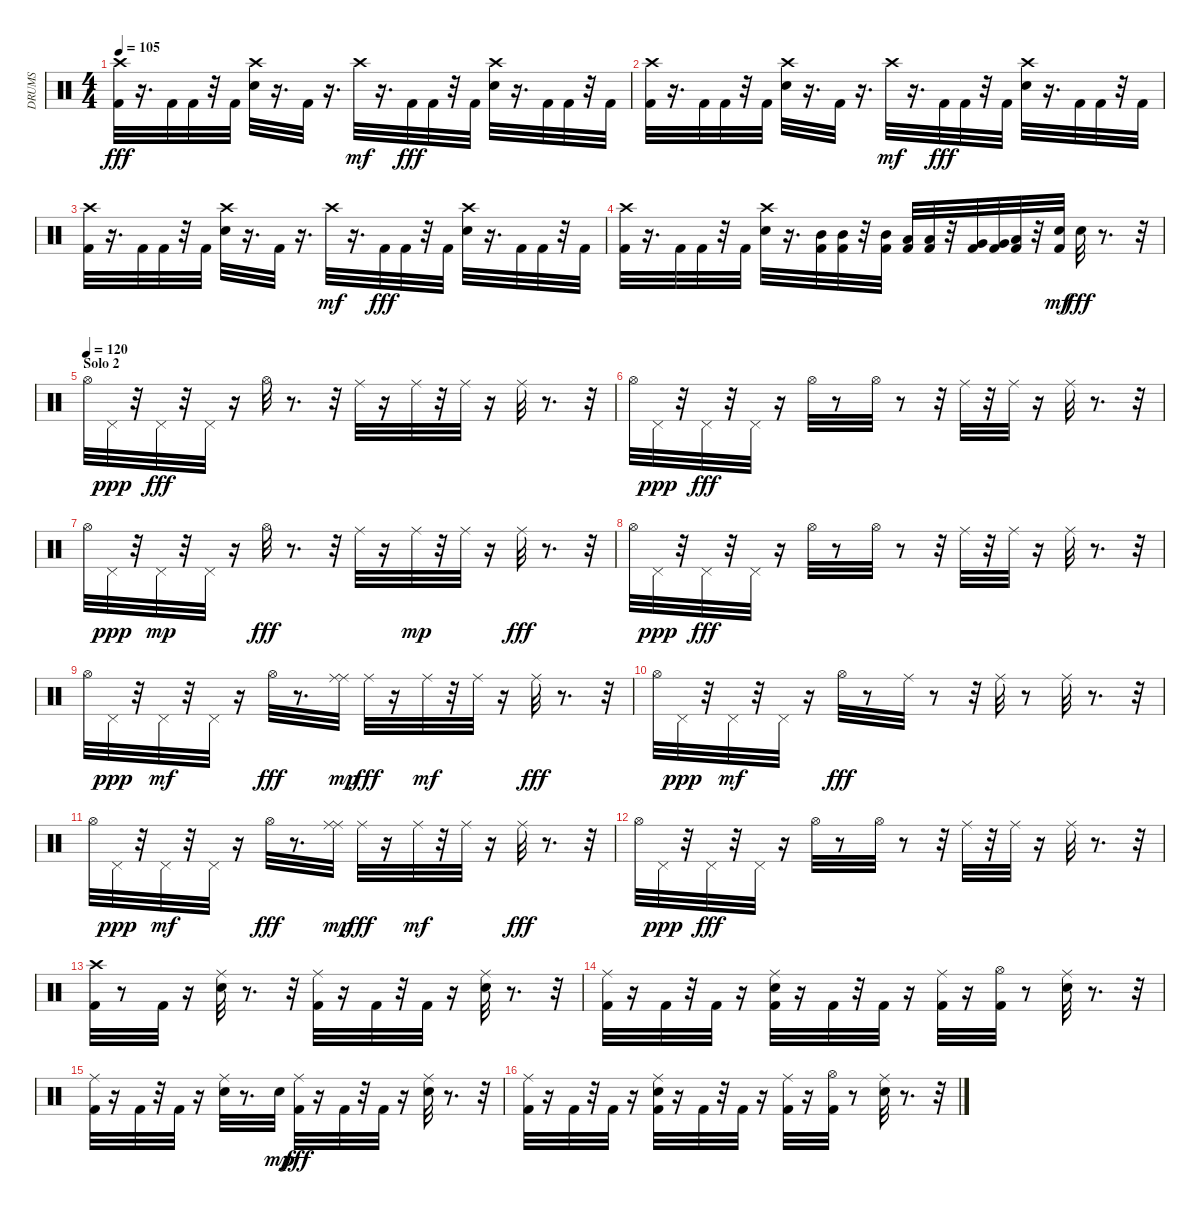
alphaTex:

\track ("DRUMS" "DRUMS") {instrument percussion}
\staff {score}
\articulation defaults
\ts (4 4)
\tempo 105
\clef neutral
\ks c
("Crash high (hit)" "Kick (hit) 2").32{dy fff} r.16{d} "Kick (hit) 2".32 "Kick (hit) 2".32 r.32 "Kick (hit) 2".32 ("Crash high (hit)" "Electric Snare (hit)").32 r.16{d} "Kick (hit) 2".32 r.16{d} "Crash high (hit)".32{dy mf} r.16{d} "Kick (hit) 2".32{dy fff} "Kick (hit) 2".32 r.32 "Kick (hit) 2".32 ("Crash high (hit)" "Electric Snare (hit)").32 r.16{d} "Kick (hit) 2".32 "Kick (hit) 2".32 r.32 "Kick (hit) 2".32 |
("Crash high (hit)" "Kick (hit) 2").32 r.16{d} "Kick (hit) 2".32 "Kick (hit) 2".32 r.32 "Kick (hit) 2".32 ("Crash high (hit)" "Electric Snare (hit)").32 r.16{d} "Kick (hit) 2".32 r.16{d} "Crash high (hit)".32{dy mf} r.16{d} "Kick (hit) 2".32{dy fff} "Kick (hit) 2".32 r.32 "Kick (hit) 2".32 ("Crash high (hit)" "Electric Snare (hit)").32 r.16{d} "Kick (hit) 2".32 "Kick (hit) 2".32 r.32 "Kick (hit) 2".32 |
("Crash high (hit)" "Kick (hit) 2").32 r.16{d} "Kick (hit) 2".32 "Kick (hit) 2".32 r.32 "Kick (hit) 2".32 ("Crash high (hit)" "Electric Snare (hit)").32 r.16{d} "Kick (hit) 2".32 r.16{d} "Crash high (hit)".32{dy mf} r.16{d} "Kick (hit) 2".32{dy fff} "Kick (hit) 2".32 r.32 "Kick (hit) 2".32 ("Crash high (hit)" "Electric Snare (hit)").32 r.16{d} "Kick (hit) 2".32 "Kick (hit) 2".32 r.32 "Kick (hit) 2".32 |
("Crash high (hit)" "Kick (hit) 2").32 r.16{d} "Kick (hit) 2".32 "Kick (hit) 2".32 r.32 "Kick (hit) 2".32 ("Crash high (hit)" "Electric Snare (hit)").32 r.16{d} ("Mid Tom (hit)" "Kick (hit) 2").32 ("Mid Tom (hit)" "Kick (hit) 2").32 r.32 ("Mid Tom (hit)" "Kick (hit) 2").32 ("Low Tom (hit)" "Kick (hit) 2").32 ("Low Tom (hit)" "Kick (hit) 2").32 r.32 ("Very Low Tom (hit)" "Kick (hit) 2").32 ("Very Low Tom (hit)" "Kick (hit) 2").32 ("Low Floor Tom (hit)" "Kick (hit) 2").32 r.32 ("Kick (hit) 2" "Electric Snare (hit)").32{dy mf} "Electric Snare (hit)".32{dy fff} r.8{d} r.32 |
\section ("" "Solo 2")
\tempo (120)
"Hi-Hat (open)".32 "Pedal Hi-Hat (hit)".32{dy ppp} r.32 "Pedal Hi-Hat (hit)".32{dy fff} r.32 "Pedal Hi-Hat (hit)".32 r.16 "Hi-Hat (open)".32 r.8{d} r.32 "Ride (middle)".32 r.16 "Ride (middle)".32 r.32 "Ride (middle)".32 r.16 "Ride (middle)".32 r.8{d} r.32 |
"Hi-Hat (open)".32 "Pedal Hi-Hat (hit)".32{dy ppp} r.32 "Pedal Hi-Hat (hit)".32{dy fff} r.32 "Pedal Hi-Hat (hit)".32 r.16 "Hi-Hat (open)".32 r.8 "Hi-Hat (open)".32 r.8 r.32 "Ride (middle)".32 r.32 "Ride (middle)".32 r.16 "Ride (middle)".32 r.8{d} r.32 |
"Hi-Hat (open)".32 "Pedal Hi-Hat (hit)".32{dy ppp} r.32 "Pedal Hi-Hat (hit)".32{dy mp} r.32 "Pedal Hi-Hat (hit)".32 r.16 "Hi-Hat (open)".32{dy fff} r.8{d} r.32 "Ride (middle)".32 r.16 "Ride (middle)".32{dy mp} r.32 "Ride (middle)".32 r.16 "Ride (middle)".32{dy fff} r.8{d} r.32 |
"Hi-Hat (open)".32 "Pedal Hi-Hat (hit)".32{dy ppp} r.32 "Pedal Hi-Hat (hit)".32{dy fff} r.32 "Pedal Hi-Hat (hit)".32 r.16 "Hi-Hat (open)".32 r.8 "Hi-Hat (open)".32 r.8 r.32 "Ride (middle)".32 r.32 "Ride (middle)".32 r.16 "Ride (middle)".32 r.8{d} r.32 |
"Hi-Hat (open)".32 "Pedal Hi-Hat (hit)".32{dy ppp} r.32 "Pedal Hi-Hat (hit)".32{dy mf} r.32 "Pedal Hi-Hat (hit)".32 r.16 "Hi-Hat (open)".32{dy fff} r.8{d} ("Ride (middle)" "Ride (middle)").32{dy mp} "Ride (middle)".32{dy fff} r.16 "Ride (middle)".32{dy mf} r.32 "Ride (middle)".32 r.16 "Ride (middle)".32{dy fff} r.8{d} r.32 |
"Hi-Hat (open)".32 "Pedal Hi-Hat (hit)".32{dy ppp} r.32 "Pedal Hi-Hat (hit)".32{dy mf} r.32 "Pedal Hi-Hat (hit)".32 r.16 "Hi-Hat (open)".32{dy fff} r.8 "Ride (middle)".32 r.8 r.32 "Ride (middle)".32 r.8 "Ride (middle)".32 r.8{d} r.32 |
"Hi-Hat (open)".32 "Pedal Hi-Hat (hit)".32{dy ppp} r.32 "Pedal Hi-Hat (hit)".32{dy mf} r.32 "Pedal Hi-Hat (hit)".32 r.16 "Hi-Hat (open)".32{dy fff} r.8{d} ("Ride (middle)" "Ride (middle)").32{dy mp} "Ride (middle)".32{dy fff} r.16 "Ride (middle)".32{dy mf} r.32 "Ride (middle)".32 r.16 "Ride (middle)".32{dy fff} r.8{d} r.32 |
"Hi-Hat (open)".32 "Pedal Hi-Hat (hit)".32{dy ppp} r.32 "Pedal Hi-Hat (hit)".32{dy fff} r.32 "Pedal Hi-Hat (hit)".32 r.16 "Hi-Hat (open)".32 r.8 "Hi-Hat (open)".32 r.8 r.32 "Ride (middle)".32 r.32 "Ride (middle)".32 r.16 "Ride (middle)".32 r.8{d} r.32 |
("Crash high (hit)" "Kick (hit) 2").32 r.8 "Kick (hit) 2".32 r.16 ("Electric Snare (hit)" "Ride (middle)").32 r.8{d} r.32 ("Kick (hit) 2" "Ride (middle)").32 r.16 "Kick (hit) 2".32 r.32 "Kick (hit) 2".32 r.16 ("Electric Snare (hit)" "Ride (middle)").32 r.8{d} r.32 |
("Kick (hit) 2" "Ride (middle)").32 r.16 "Kick (hit) 2".32 r.32 "Kick (hit) 2".32 r.16 ("Electric Snare (hit)" "Kick (hit) 2" "Ride (middle)").32 r.16 "Kick (hit) 2".32 r.32 "Kick (hit) 2".32 r.16 ("Kick (hit) 2" "Ride (middle)").32 r.16 ("Hi-Hat (open)" "Kick (hit) 2").32 r.8 ("Electric Snare (hit)" "Ride (middle)").32 r.8{d} r.32 |
("Kick (hit) 2" "Ride (middle)").32 r.16 "Kick (hit) 2".32 r.32 "Kick (hit) 2".32 r.16 ("Electric Snare (hit)" "Ride (middle)").32 r.8{d} "Electric Snare (hit)".32{dy mp} ("Kick (hit) 2" "Ride (middle)").32{dy fff} r.16 "Kick (hit) 2".32 r.32 "Kick (hit) 2".32 r.16 ("Electric Snare (hit)" "Ride (middle)").32 r.8{d} r.32 |
("Kick (hit) 2" "Ride (middle)").32 r.16 "Kick (hit) 2".32 r.32 "Kick (hit) 2".32 r.16 ("Electric Snare (hit)" "Kick (hit) 2" "Ride (middle)").32 r.16 "Kick (hit) 2".32 r.32 "Kick (hit) 2".32 r.16 ("Kick (hit) 2" "Ride (middle)").32 r.16 ("Hi-Hat (open)" "Kick (hit) 2").32 r.8 ("Electric Snare (hit)" "Ride (middle)").32 r.8{d} r.32
